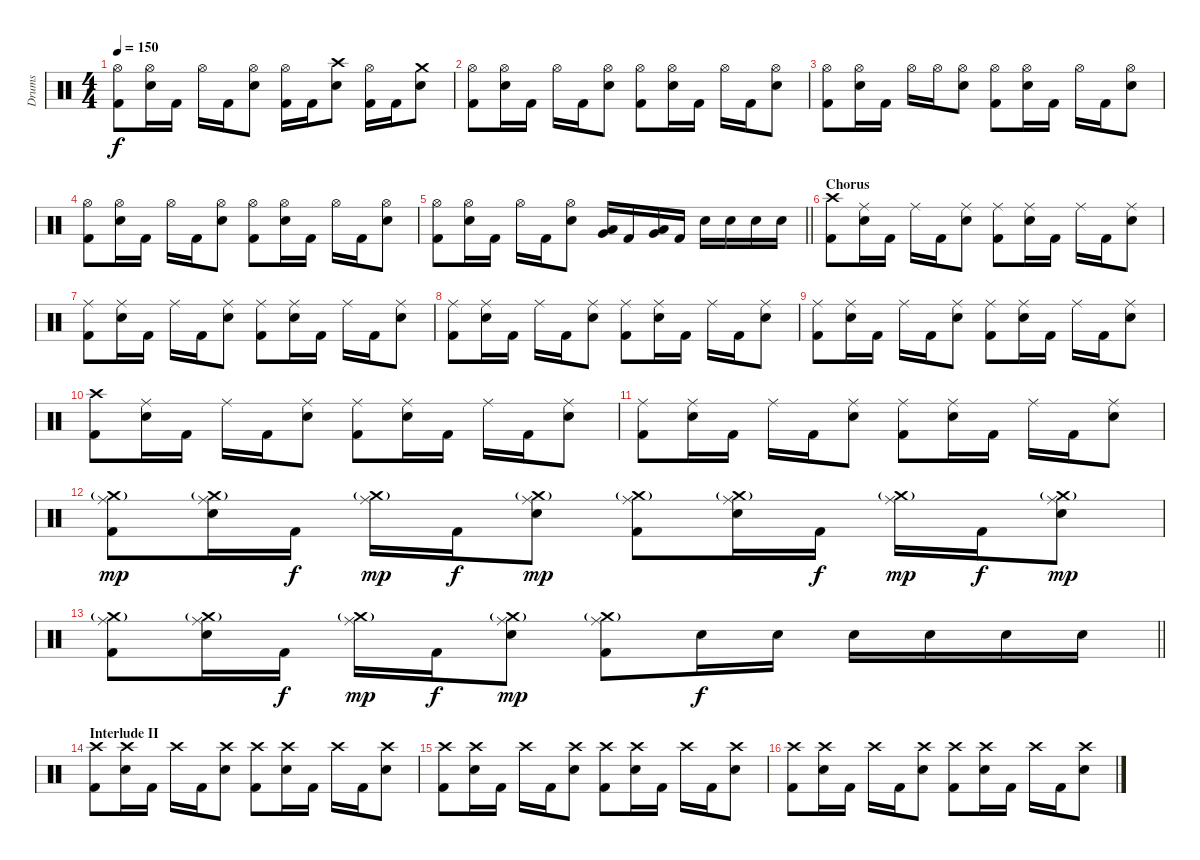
\track ("Drums" "Drums") {instrument percussion}
\staff {score}
\articulation defaults
\ts (4 4)
\tempo 150
\clef neutral
\ks c
("Hi-Hat (open)" "Kick (hit) 2").8{dy f} ("Hi-Hat (open)" "Electric Snare (hit)").16 "Kick (hit) 2".16 "Hi-Hat (open)".16 "Kick (hit) 2".16 ("Hi-Hat (open)" "Electric Snare (hit)").8 ("Hi-Hat (open)" "Kick (hit) 2").16 "Kick (hit) 2".16 ("Crash high (hit)" "Electric Snare (hit)").8 ("Hi-Hat (open)" "Kick (hit) 2").16 "Kick (hit) 2".16 ("Crash medium (hit)" "Electric Snare (hit)").8 |
("Hi-Hat (open)" "Kick (hit) 2").8 ("Hi-Hat (open)" "Electric Snare (hit)").16 "Kick (hit) 2".16 "Hi-Hat (open)".16 "Kick (hit) 2".16 ("Hi-Hat (open)" "Electric Snare (hit)").8 ("Hi-Hat (open)" "Kick (hit) 2").8 ("Hi-Hat (open)" "Electric Snare (hit)").16 "Kick (hit) 2".16 "Hi-Hat (open)".16 "Kick (hit) 2".16 ("Hi-Hat (open)" "Electric Snare (hit)").8 |
("Hi-Hat (open)" "Kick (hit) 2").8 ("Hi-Hat (open)" "Electric Snare (hit)").16 "Kick (hit) 2".16 "Hi-Hat (open)".16 "Hi-Hat (open)".16 ("Hi-Hat (open)" "Electric Snare (hit)").8 ("Hi-Hat (open)" "Kick (hit) 2").8 ("Hi-Hat (open)" "Electric Snare (hit)").16 "Kick (hit) 2".16 "Hi-Hat (open)".16 "Kick (hit) 2".16 ("Hi-Hat (open)" "Electric Snare (hit)").8 |
("Hi-Hat (open)" "Kick (hit) 2").8 ("Hi-Hat (open)" "Electric Snare (hit)").16 "Kick (hit) 2".16 "Hi-Hat (open)".16 "Kick (hit) 2".16 ("Hi-Hat (open)" "Electric Snare (hit)").8 ("Hi-Hat (open)" "Kick (hit) 2").8 ("Hi-Hat (open)" "Electric Snare (hit)").16 "Kick (hit) 2".16 "Hi-Hat (open)".16 "Kick (hit) 2".16 ("Hi-Hat (open)" "Electric Snare (hit)").8 |
\barLineRight lightlight
("Hi-Hat (open)" "Kick (hit) 2").8 ("Hi-Hat (open)" "Electric Snare (hit)").16 "Kick (hit) 2".16 "Hi-Hat (open)".16 "Kick (hit) 2".16 ("Hi-Hat (open)" "Electric Snare (hit)").8 ("Very Low Tom (hit)" "Low Tom (hit)").16{bd 120} "Kick (hit) 2".16 ("Very Low Tom (hit)" "Low Tom (hit)").16{bd 120} "Kick (hit) 2".16 "Electric Snare (hit)".16 "Electric Snare (hit)".16 "Electric Snare (hit)".16 "Electric Snare (hit)".16 |
\section ("" "Chorus")
("Crash high (hit)" "Kick (hit) 2").8 ("Ride (middle)" "Electric Snare (hit)").16 "Kick (hit) 2".16 "Ride (middle)".16 "Kick (hit) 2".16 ("Ride (middle)" "Electric Snare (hit)").8 ("Ride (middle)" "Kick (hit) 2").8 ("Ride (middle)" "Electric Snare (hit)").16 "Kick (hit) 2".16 "Ride (middle)".16 "Kick (hit) 2".16 ("Ride (middle)" "Electric Snare (hit)").8 |
("Ride (middle)" "Kick (hit) 2").8 ("Ride (middle)" "Electric Snare (hit)").16 "Kick (hit) 2".16 "Ride (middle)".16 "Kick (hit) 2".16 ("Ride (middle)" "Electric Snare (hit)").8 ("Ride (middle)" "Kick (hit) 2").8 ("Ride (middle)" "Electric Snare (hit)").16 "Kick (hit) 2".16 "Ride (middle)".16 "Kick (hit) 2".16 ("Ride (middle)" "Electric Snare (hit)").8 |
("Ride (middle)" "Kick (hit) 2").8 ("Ride (middle)" "Electric Snare (hit)").16 "Kick (hit) 2".16 "Ride (middle)".16 "Kick (hit) 2".16 ("Ride (middle)" "Electric Snare (hit)").8 ("Ride (middle)" "Kick (hit) 2").8 ("Ride (middle)" "Electric Snare (hit)").16 "Kick (hit) 2".16 "Ride (middle)".16 "Kick (hit) 2".16 ("Ride (middle)" "Electric Snare (hit)").8 |
("Ride (middle)" "Kick (hit) 2").8 ("Ride (middle)" "Electric Snare (hit)").16 "Kick (hit) 2".16 "Ride (middle)".16 "Kick (hit) 2".16 ("Ride (middle)" "Electric Snare (hit)").8 ("Ride (middle)" "Kick (hit) 2").8 ("Ride (middle)" "Electric Snare (hit)").16 "Kick (hit) 2".16 "Ride (middle)".16 "Kick (hit) 2".16 ("Ride (middle)" "Electric Snare (hit)").8 |
("Crash high (hit)" "Kick (hit) 2").8 ("Ride (middle)" "Electric Snare (hit)").16 "Kick (hit) 2".16 "Ride (middle)".16 "Kick (hit) 2".16 ("Ride (middle)" "Electric Snare (hit)").8 ("Ride (middle)" "Kick (hit) 2").8 ("Ride (middle)" "Electric Snare (hit)").16 "Kick (hit) 2".16 "Ride (middle)".16 "Kick (hit) 2".16 ("Ride (middle)" "Electric Snare (hit)").8 |
("Ride (middle)" "Kick (hit) 2").8 ("Ride (middle)" "Electric Snare (hit)").16 "Kick (hit) 2".16 "Ride (middle)".16 "Kick (hit) 2".16 ("Ride (middle)" "Electric Snare (hit)").8 ("Ride (middle)" "Kick (hit) 2").8 ("Ride (middle)" "Electric Snare (hit)").16 "Kick (hit) 2".16 "Ride (middle)".16 "Kick (hit) 2".16 ("Ride (middle)" "Electric Snare (hit)").8 |
("Crash medium (hit)"{g} "Ride (middle)" "Kick (hit) 2").8{dy mp} ("Crash medium (hit)"{g} "Ride (middle)" "Electric Snare (hit)").16 "Kick (hit) 2".16{dy f} ("Crash medium (hit)"{g} "Ride (middle)").16{dy mp} "Kick (hit) 2".16{dy f} ("Crash medium (hit)"{g} "Ride (middle)" "Electric Snare (hit)").8{dy mp} ("Crash medium (hit)"{g} "Ride (middle)" "Kick (hit) 2").8 ("Crash medium (hit)"{g} "Ride (middle)" "Electric Snare (hit)").16 "Kick (hit) 2".16{dy f} ("Crash medium (hit)"{g} "Ride (middle)").16{dy mp} "Kick (hit) 2".16{dy f} ("Crash medium (hit)"{g} "Ride (middle)" "Electric Snare (hit)").8{dy mp} |
\barLineRight lightlight
("Crash medium (hit)"{g} "Ride (middle)" "Kick (hit) 2").8 ("Crash medium (hit)"{g} "Ride (middle)" "Electric Snare (hit)").16 "Kick (hit) 2".16{dy f} ("Crash medium (hit)"{g} "Ride (middle)").16{dy mp} "Kick (hit) 2".16{dy f} ("Crash medium (hit)"{g} "Ride (middle)" "Electric Snare (hit)").8{dy mp} ("Crash medium (hit)"{g} "Ride (middle)" "Kick (hit) 2").8 "Electric Snare (hit)".16{dy f} "Electric Snare (hit)".16 "Electric Snare (hit)".16 "Electric Snare (hit)".16 "Electric Snare (hit)".16 "Electric Snare (hit)".16 |
\section ("" "Interlude II")
("Crash high (hit)" "Kick (hit) 2").8 ("Crash high (hit)" "Electric Snare (hit)").16 "Kick (hit) 2".16 "Crash high (hit)".16 "Kick (hit) 2".16 ("Crash high (hit)" "Electric Snare (hit)").8 ("Crash high (hit)" "Kick (hit) 2").8 ("Crash high (hit)" "Electric Snare (hit)").16 "Kick (hit) 2".16 "Crash high (hit)".16 "Kick (hit) 2".16 ("Crash high (hit)" "Electric Snare (hit)").8 |
("Crash high (hit)" "Kick (hit) 2").8 ("Crash high (hit)" "Electric Snare (hit)").16 "Kick (hit) 2".16 "Crash high (hit)".16 "Kick (hit) 2".16 ("Crash high (hit)" "Electric Snare (hit)").8 ("Crash high (hit)" "Kick (hit) 2").8 ("Crash high (hit)" "Electric Snare (hit)").16 "Kick (hit) 2".16 "Crash high (hit)".16 "Kick (hit) 2".16 ("Crash high (hit)" "Electric Snare (hit)").8 |
("Crash high (hit)" "Kick (hit) 2").8 ("Crash high (hit)" "Electric Snare (hit)").16 "Kick (hit) 2".16 "Crash high (hit)".16 "Kick (hit) 2".16 ("Crash high (hit)" "Electric Snare (hit)").8 ("Crash high (hit)" "Kick (hit) 2").8 ("Crash high (hit)" "Electric Snare (hit)").16 "Kick (hit) 2".16 "Crash high (hit)".16 "Kick (hit) 2".16 ("Crash high (hit)" "Electric Snare (hit)").8
